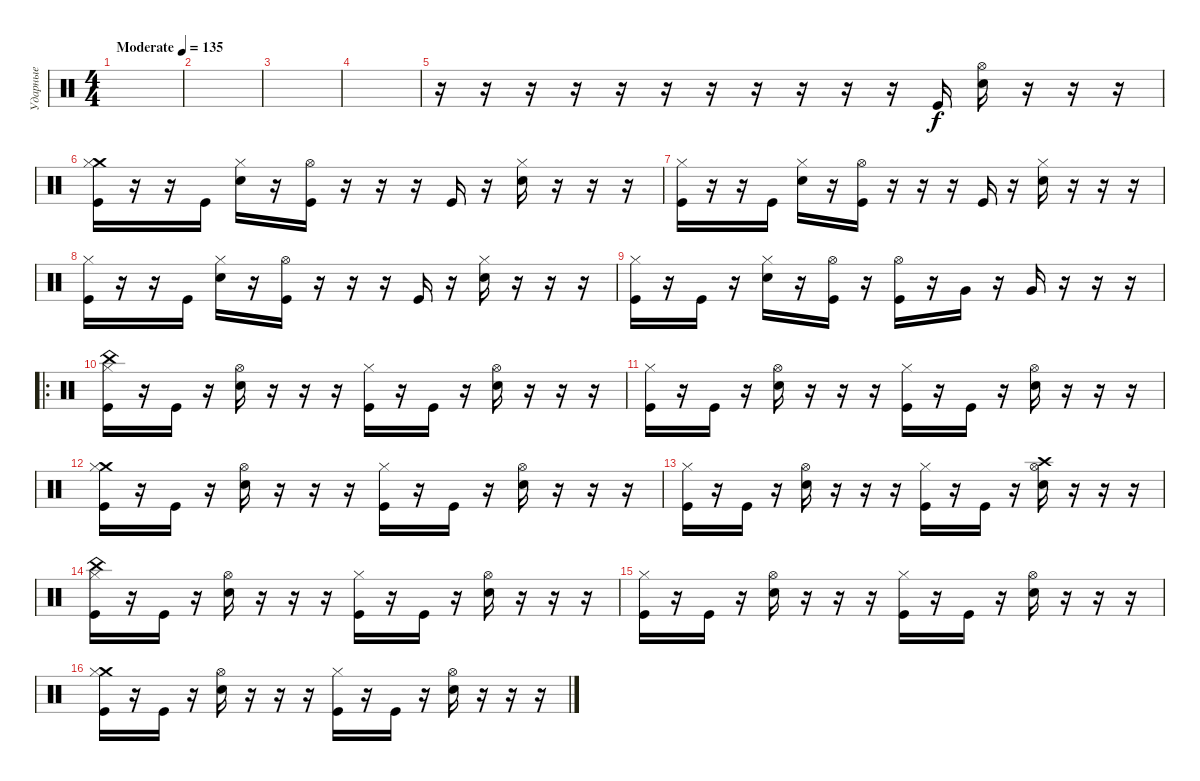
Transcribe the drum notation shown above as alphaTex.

\track ("Ударные" "Ударные") {instrument percussion}
\staff {score}
\articulation defaults
\ts (4 4)
\tempo (135 "Moderate")
\clef neutral
\ks c
|
|
|
|
r.16 r.16 r.16 r.16 r.16 r.16 r.16 r.16 r.16 r.16 r.16 "Kick (hit)".16 ("Hi-Hat (open)" "Electric Snare (hit)").16 r.16 r.16 r.16 |
("Crash medium (hit)" "Kick (hit)" "Hi-Hat (closed)").16 r.16 r.16 "Kick (hit)".16 ("Electric Snare (hit)" "Hi-Hat (closed)").16 r.16 ("Kick (hit)" "Hi-Hat (open)").16 r.16 r.16 r.16 "Kick (hit)".16 r.16 ("Electric Snare (hit)" "Hi-Hat (closed)").16 r.16 r.16 r.16 |
("Kick (hit)" "Hi-Hat (closed)").16 r.16 r.16 "Kick (hit)".16 ("Electric Snare (hit)" "Hi-Hat (closed)").16 r.16 ("Kick (hit)" "Hi-Hat (open)").16 r.16 r.16 r.16 "Kick (hit)".16 r.16 ("Electric Snare (hit)" "Hi-Hat (closed)").16 r.16 r.16 r.16 |
("Kick (hit)" "Hi-Hat (closed)").16 r.16 r.16 "Kick (hit)".16 ("Electric Snare (hit)" "Hi-Hat (closed)").16 r.16 ("Kick (hit)" "Hi-Hat (open)").16 r.16 r.16 r.16 "Kick (hit)".16 r.16 ("Electric Snare (hit)" "Hi-Hat (closed)").16 r.16 r.16 r.16 |
("Kick (hit)" "Hi-Hat (closed)").16 r.16 "Kick (hit)".16 r.16 ("Electric Snare (hit)" "Hi-Hat (closed)").16 r.16 ("Kick (hit)" "Hi-Hat (open)").16 r.16 ("Kick (hit)" "Hi-Hat (open)").16 r.16 "Very Low Tom (hit)".16 r.16 "Very Low Tom (hit)".16 r.16 r.16 r.16 |
\ro
("China (hit)" "Kick (hit)" "Hi-Hat (closed)").16 r.16 "Kick (hit)".16 r.16 ("Electric Snare (hit)" "Hi-Hat (open)").16 r.16 r.16 r.16 ("Kick (hit)" "Hi-Hat (closed)").16 r.16 "Kick (hit)".16 r.16 ("Electric Snare (hit)" "Hi-Hat (open)").16 r.16 r.16 r.16 |
("Kick (hit)" "Hi-Hat (closed)").16 r.16 "Kick (hit)".16 r.16 ("Electric Snare (hit)" "Hi-Hat (open)").16 r.16 r.16 r.16 ("Kick (hit)" "Hi-Hat (closed)").16 r.16 "Kick (hit)".16 r.16 ("Electric Snare (hit)" "Hi-Hat (open)").16 r.16 r.16 r.16 |
("Crash medium (hit)" "Kick (hit)" "Hi-Hat (closed)").16 r.16 "Kick (hit)".16 r.16 ("Electric Snare (hit)" "Hi-Hat (open)").16 r.16 r.16 r.16 ("Kick (hit)" "Hi-Hat (closed)").16 r.16 "Kick (hit)".16 r.16 ("Electric Snare (hit)" "Hi-Hat (open)").16 r.16 r.16 r.16 |
("Kick (hit)" "Hi-Hat (closed)").16 r.16 "Kick (hit)".16 r.16 ("Electric Snare (hit)" "Hi-Hat (open)").16 r.16 r.16 r.16 ("Kick (hit)" "Hi-Hat (closed)").16 r.16 "Kick (hit)".16 r.16 ("Crash high (hit)" "Electric Snare (hit)" "Hi-Hat (open)").16 r.16 r.16 r.16 |
("China (hit)" "Kick (hit)" "Hi-Hat (closed)").16 r.16 "Kick (hit)".16 r.16 ("Electric Snare (hit)" "Hi-Hat (open)").16 r.16 r.16 r.16 ("Kick (hit)" "Hi-Hat (closed)").16 r.16 "Kick (hit)".16 r.16 ("Electric Snare (hit)" "Hi-Hat (open)").16 r.16 r.16 r.16 |
("Kick (hit)" "Hi-Hat (closed)").16 r.16 "Kick (hit)".16 r.16 ("Electric Snare (hit)" "Hi-Hat (open)").16 r.16 r.16 r.16 ("Kick (hit)" "Hi-Hat (closed)").16 r.16 "Kick (hit)".16 r.16 ("Electric Snare (hit)" "Hi-Hat (open)").16 r.16 r.16 r.16 |
("Crash medium (hit)" "Kick (hit)" "Hi-Hat (closed)").16 r.16 "Kick (hit)".16 r.16 ("Electric Snare (hit)" "Hi-Hat (open)").16 r.16 r.16 r.16 ("Kick (hit)" "Hi-Hat (closed)").16 r.16 "Kick (hit)".16 r.16 ("Electric Snare (hit)" "Hi-Hat (open)").16 r.16 r.16 r.16
